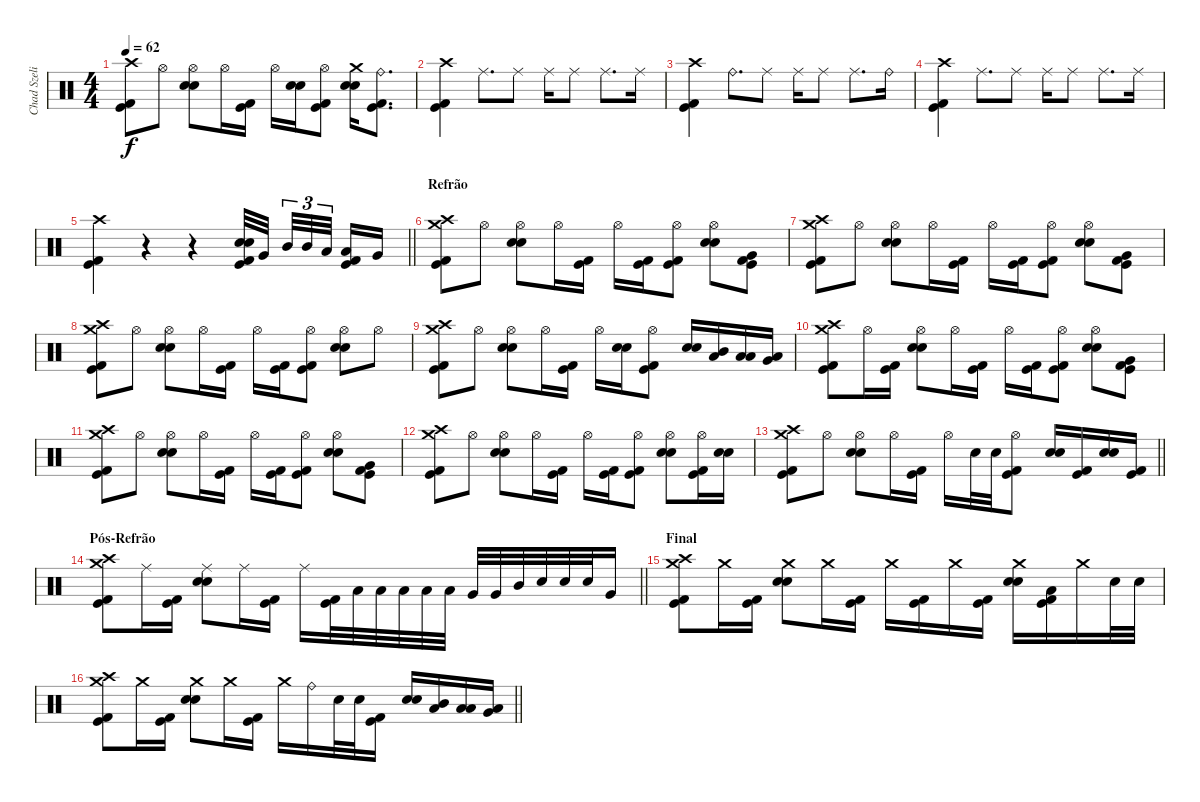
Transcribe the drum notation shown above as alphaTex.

\track ("Chad Szeliga" "Chad Szeli") {instrument percussion}
\staff {score}
\articulation defaults
\ts (4 4)
\tempo 62
\clef neutral
\ks c
("Crash high (hit)" "Kick (hit) 2" "Kick (hit)").8{dy f} "Hi-Hat (open)".8 ("Snare (hit) 2" "Snare (hit) 2" "Hi-Hat (open)").8 "Hi-Hat (open)".16 ("Kick (hit) 2" "Kick (hit)").16 "Hi-Hat (open)".16 ("Snare (hit) 2" "Snare (hit) 2").16 ("Kick (hit) 2" "Kick (hit)" "Hi-Hat (open)").8 ("Crash medium (hit)" "Snare (hit) 2" "Snare (hit) 2").16 ("Ride (bell)" "Kick (hit) 2" "Kick (hit)").8{d} |
("Crash high (hit)" "Kick (hit) 2" "Kick (hit)").4 "Ride (middle)".8{d} "Ride (middle)".8 "Ride (middle)".16 "Ride (middle)".8 "Ride (middle)".8{d} "Ride (middle)".16 |
("Crash high (hit)" "Kick (hit) 2" "Kick (hit)").4 "Ride (bell)".8{d} "Ride (middle)".8 "Ride (middle)".16 "Ride (middle)".8 "Ride (middle)".8{d} "Ride (bell)".16 |
("Crash high (hit)" "Kick (hit) 2" "Kick (hit)").4 "Ride (middle)".8{d} "Ride (middle)".8 "Ride (middle)".16 "Ride (middle)".8 "Ride (middle)".8{d} "Ride (middle)".16 |
\barLineRight lightlight
("Crash high (hit)" "Kick (hit) 2" "Kick (hit)").4 r.4 r.4 ("Kick (hit) 2" "Kick (hit)" "Snare (hit) 2" "Snare (hit) 2").32 "Very Low Tom (hit)".32{beam splitsecondary} "Mid Tom (hit)".32{tu (3 2)} "Mid Tom (hit)".32{tu (3 2)} "Low Tom (hit)".32{tu (3 2) beam splitsecondary} ("Kick (hit) 2" "Kick (hit)" "Low Tom (hit)").16 "Very Low Tom (hit)".16 |
\section ("" "Refrão")
("Crash high (hit)" "Kick (hit) 2" "Kick (hit)" "Crash medium (hit)").8 "Hi-Hat (open)".8 ("Snare (hit) 2" "Snare (hit) 2" "Hi-Hat (open)").8 "Hi-Hat (open)".16 ("Kick (hit) 2" "Kick (hit)").16 "Hi-Hat (open)".16 ("Kick (hit) 2" "Kick (hit)").16 ("Kick (hit) 2" "Kick (hit)" "Hi-Hat (open)").8 ("Snare (hit) 2" "Snare (hit) 2" "Hi-Hat (open)").8 ("Kick (hit) 2" "Kick (hit)" "Very Low Tom (hit)").8 |
("Crash high (hit)" "Kick (hit) 2" "Kick (hit)" "Crash medium (hit)").8 "Hi-Hat (open)".8 ("Snare (hit) 2" "Snare (hit) 2" "Hi-Hat (open)").8 "Hi-Hat (open)".16 ("Kick (hit) 2" "Kick (hit)").16 "Hi-Hat (open)".16 ("Kick (hit) 2" "Kick (hit)").16 ("Kick (hit) 2" "Kick (hit)" "Hi-Hat (open)").8 ("Snare (hit) 2" "Snare (hit) 2" "Hi-Hat (open)").8 ("Kick (hit) 2" "Kick (hit)" "Very Low Tom (hit)").8 |
("Crash high (hit)" "Kick (hit) 2" "Kick (hit)" "Crash medium (hit)").8 "Hi-Hat (open)".8 ("Snare (hit) 2" "Snare (hit) 2" "Hi-Hat (open)").8 "Hi-Hat (open)".16 ("Kick (hit) 2" "Kick (hit)").16 "Hi-Hat (open)".16 ("Kick (hit) 2" "Kick (hit)").16 ("Kick (hit) 2" "Kick (hit)" "Hi-Hat (open)").8 ("Snare (hit) 2" "Snare (hit) 2" "Hi-Hat (open)").8 "Hi-Hat (open)".8 |
("Crash high (hit)" "Kick (hit) 2" "Kick (hit)" "Crash medium (hit)").8 "Hi-Hat (open)".8 ("Snare (hit) 2" "Snare (hit) 2" "Hi-Hat (open)").8 "Hi-Hat (open)".16 ("Kick (hit) 2" "Kick (hit)").16 "Hi-Hat (open)".16 ("Snare (hit) 2" "Snare (hit) 2").16 ("Kick (hit) 2" "Kick (hit)" "Hi-Hat (open)").8 ("Snare (hit) 2" "Snare (hit) 2").16 ("Mid Tom (hit)" "Low Tom (hit)").16 ("Low Tom (hit)" "Low Tom (hit)").16 ("Very Low Tom (hit)" "Low Tom (hit)").16 |
("Crash high (hit)" "Kick (hit) 2" "Kick (hit)" "Crash medium (hit)").8 "Hi-Hat (open)".16 ("Kick (hit) 2" "Kick (hit)").16 ("Snare (hit) 2" "Snare (hit) 2" "Hi-Hat (open)").8 "Hi-Hat (open)".16 ("Kick (hit) 2" "Kick (hit)").16 "Hi-Hat (open)".16 ("Kick (hit) 2" "Kick (hit)").16 ("Kick (hit) 2" "Kick (hit)" "Hi-Hat (open)").8 ("Snare (hit) 2" "Snare (hit) 2" "Hi-Hat (open)").8 ("Kick (hit) 2" "Kick (hit)" "Very Low Tom (hit)").8 |
("Crash high (hit)" "Kick (hit) 2" "Kick (hit)" "Crash medium (hit)").8 "Hi-Hat (open)".8 ("Snare (hit) 2" "Snare (hit) 2" "Hi-Hat (open)").8 "Hi-Hat (open)".16 ("Kick (hit) 2" "Kick (hit)").16 "Hi-Hat (open)".16 ("Kick (hit) 2" "Kick (hit)").16 ("Kick (hit) 2" "Kick (hit)" "Hi-Hat (open)").8 ("Snare (hit) 2" "Snare (hit) 2" "Hi-Hat (open)").8 ("Kick (hit) 2" "Kick (hit)" "Very Low Tom (hit)").8 |
("Crash high (hit)" "Kick (hit) 2" "Kick (hit)" "Crash medium (hit)").8 "Hi-Hat (open)".8 ("Snare (hit) 2" "Snare (hit) 2" "Hi-Hat (open)").8 "Hi-Hat (open)".16 ("Kick (hit) 2" "Kick (hit)").16 "Hi-Hat (open)".16 ("Kick (hit) 2" "Kick (hit)").16 ("Kick (hit) 2" "Kick (hit)" "Hi-Hat (open)").8 ("Snare (hit) 2" "Snare (hit) 2" "Hi-Hat (open)").8 ("Kick (hit) 2" "Kick (hit)" "Hi-Hat (open)").16 ("Snare (hit) 2" "Snare (hit) 2").16 |
\barLineRight lightlight
("Crash high (hit)" "Kick (hit) 2" "Kick (hit)" "Crash medium (hit)").8 "Hi-Hat (open)".8 ("Snare (hit) 2" "Snare (hit) 2" "Hi-Hat (open)").8 "Hi-Hat (open)".16 ("Kick (hit) 2" "Kick (hit)").16 "Hi-Hat (open)".16 "Snare (hit) 2".32 "Snare (hit) 2".32 ("Kick (hit) 2" "Kick (hit)" "Hi-Hat (open)").8 ("Snare (hit) 2" "Snare (hit) 2").16 ("Kick (hit) 2" "Kick (hit)").16 ("Snare (hit) 2" "Snare (hit) 2").16 ("Kick (hit) 2" "Kick (hit)").16 |
\section ("" "Pós-Refrão")
\barLineRight lightlight
("Crash high (hit)" "Kick (hit) 2" "Kick (hit)" "Crash medium (hit)").8 "Ride (middle)".16 ("Kick (hit) 2" "Kick (hit)").16 ("Ride (middle)" "Snare (hit) 2" "Snare (hit) 2").8 "Ride (middle)".16 ("Kick (hit) 2" "Kick (hit)").16 "Ride (middle)".16 ("Kick (hit) 2" "Kick (hit)").32 "Low Tom (hit)".32 "Low Tom (hit)".32 "Low Tom (hit)".32 "Low Tom (hit)".32 "Low Tom (hit)".32 "Very Low Tom (hit)".32 "Very Low Tom (hit)".32 "Mid Tom (hit)".32 "Snare (hit) 2".32 "Snare (hit) 2".32 "Snare (hit) 2".32 "Very Low Tom (hit)".16 |
\section ("" "Final")
("Crash high (hit)" "Kick (hit) 2" "Kick (hit)" "Crash medium (hit)").8 "Crash medium (hit)".16 ("Kick (hit) 2" "Kick (hit)").16 ("Crash medium (hit)" "Snare (hit) 2" "Snare (hit) 2").8 "Crash medium (hit)".16 ("Kick (hit) 2" "Kick (hit)").16 "Crash medium (hit)".16 ("Kick (hit) 2" "Kick (hit)").16 "Crash medium (hit)".16 ("Kick (hit) 2" "Kick (hit)").16 ("Crash medium (hit)" "Snare (hit) 2" "Snare (hit) 2").16 ("Kick (hit) 2" "Kick (hit)" "Low Tom (hit)").16 "Crash medium (hit)".16 "Snare (hit) 2".32 "Snare (hit) 2".32 |
\barLineRight lightlight
("Crash high (hit)" "Kick (hit) 2" "Kick (hit)" "Crash medium (hit)").8 "Crash medium (hit)".16 ("Kick (hit) 2" "Kick (hit)").16 ("Crash medium (hit)" "Snare (hit) 2" "Snare (hit) 2").8 "Crash medium (hit)".16 ("Kick (hit) 2" "Kick (hit)").16 "Crash medium (hit)".16 "Ride (bell)".16 "Snare (hit) 2".32 "Snare (hit) 2".32 ("Kick (hit) 2" "Kick (hit)").16 ("Snare (hit) 2" "Snare (hit) 2").16 ("Mid Tom (hit)" "Low Tom (hit)").16 ("Low Tom (hit)" "Low Tom (hit)").16 ("Very Low Tom (hit)" "Low Tom (hit)").16
